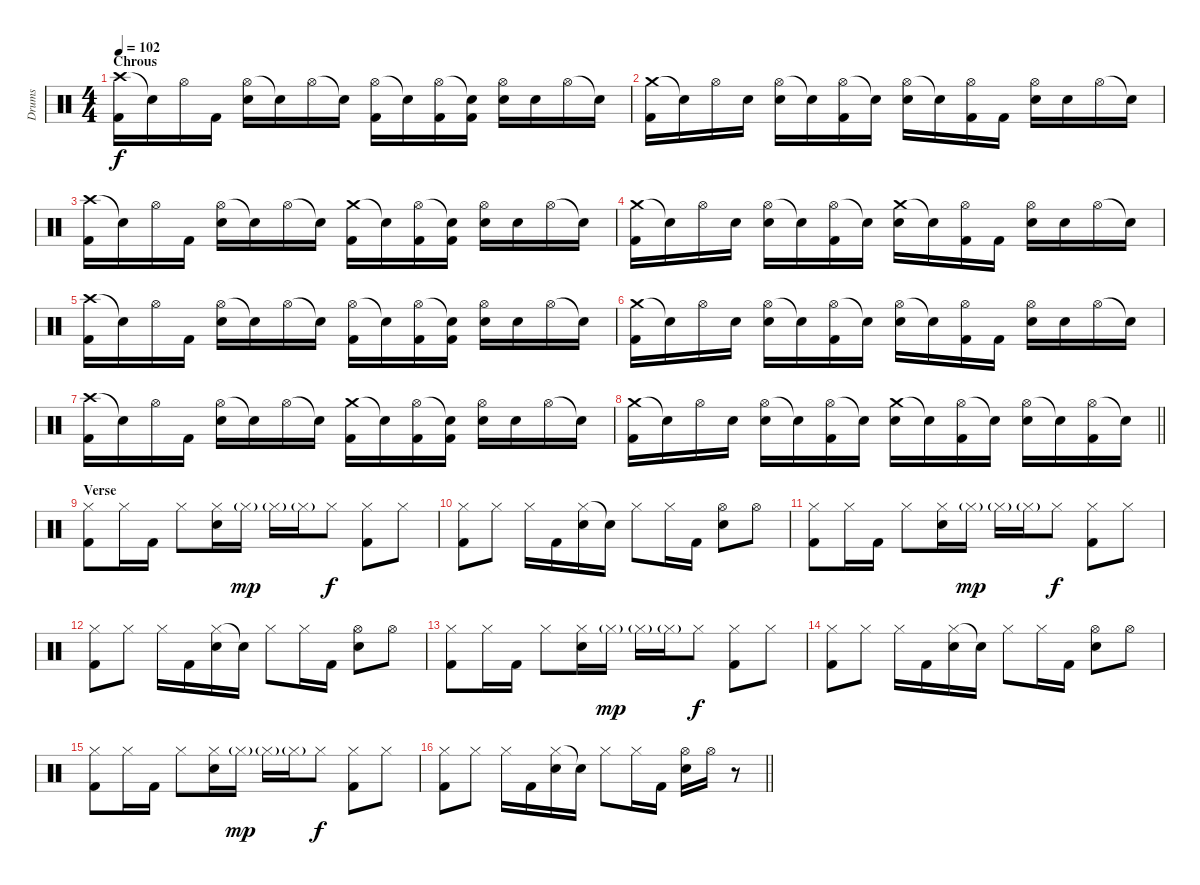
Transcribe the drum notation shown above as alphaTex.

\track ("Drums" "Drums") {instrument percussion}
\staff {score}
\articulation defaults
\ts (4 4)
\section ("" "Chrous")
\tempo 102
\clef neutral
\ks c
("Crash high (hit)" "Kick (hit) 2").16{dy f} "Snare (hit)"{t}.16 "Hi-Hat (open)".16 "Kick (hit) 2".16 ("Hi-Hat (open)" "Electric Snare (hit)").16 "Snare (hit)"{t}.16 "Hi-Hat (open)".16 "Snare (hit)"{t}.16 ("Hi-Hat (open)" "Kick (hit) 2").16 "Snare (hit)"{t}.16 ("Hi-Hat (open)" "Kick (hit) 2").16 ("Snare (hit)"{t} "Kick (hit) 2").16 ("Hi-Hat (open)" "Electric Snare (hit)").16 "Electric Snare (hit)".16 "Hi-Hat (open)".16 "Snare (hit)"{t}.16 |
("Crash medium (hit)" "Kick (hit) 2").16 "Snare (hit)"{t}.16 "Hi-Hat (open)".16 "Electric Snare (hit)".16 ("Hi-Hat (open)" "Electric Snare (hit)").16 "Snare (hit)"{t}.16 ("Hi-Hat (open)" "Kick (hit) 2").16 "Snare (hit)"{t}.16 ("Hi-Hat (open)" "Electric Snare (hit)").16 "Snare (hit)"{t}.16 ("Hi-Hat (open)" "Kick (hit) 2").16 "Kick (hit) 2".16 ("Hi-Hat (open)" "Electric Snare (hit)").16 "Electric Snare (hit)".16 "Hi-Hat (open)".16 "Snare (hit)"{t}.16 |
("Crash high (hit)" "Kick (hit) 2").16 "Snare (hit)"{t}.16 "Hi-Hat (open)".16 "Kick (hit) 2".16 ("Hi-Hat (open)" "Electric Snare (hit)").16 "Snare (hit)"{t}.16 "Hi-Hat (open)".16 "Snare (hit)"{t}.16 ("Crash medium (hit)" "Kick (hit) 2").16 "Snare (hit)"{t}.16 ("Hi-Hat (open)" "Kick (hit) 2").16 ("Snare (hit)"{t} "Kick (hit) 2").16 ("Hi-Hat (open)" "Electric Snare (hit)").16 "Electric Snare (hit)".16 "Hi-Hat (open)".16 "Snare (hit)"{t}.16 |
("Crash medium (hit)" "Kick (hit) 2").16 "Snare (hit)"{t}.16 "Hi-Hat (open)".16 "Electric Snare (hit)".16 ("Hi-Hat (open)" "Electric Snare (hit)").16 "Snare (hit)"{t}.16 ("Hi-Hat (open)" "Kick (hit) 2").16 "Snare (hit)"{t}.16 ("Crash medium (hit)" "Electric Snare (hit)").16 "Snare (hit)"{t}.16 ("Hi-Hat (open)" "Kick (hit) 2").16 "Kick (hit) 2".16 ("Hi-Hat (open)" "Electric Snare (hit)").16 "Electric Snare (hit)".16 "Hi-Hat (open)".16 "Snare (hit)"{t}.16 |
("Crash high (hit)" "Kick (hit) 2").16 "Snare (hit)"{t}.16 "Hi-Hat (open)".16 "Kick (hit) 2".16 ("Hi-Hat (open)" "Electric Snare (hit)").16 "Snare (hit)"{t}.16 "Hi-Hat (open)".16 "Snare (hit)"{t}.16 ("Hi-Hat (open)" "Kick (hit) 2").16 "Snare (hit)"{t}.16 ("Hi-Hat (open)" "Kick (hit) 2").16 ("Snare (hit)"{t} "Kick (hit) 2").16 ("Hi-Hat (open)" "Electric Snare (hit)").16 "Electric Snare (hit)".16 "Hi-Hat (open)".16 "Snare (hit)"{t}.16 |
("Crash medium (hit)" "Kick (hit) 2").16 "Snare (hit)"{t}.16 "Hi-Hat (open)".16 "Electric Snare (hit)".16 ("Hi-Hat (open)" "Electric Snare (hit)").16 "Snare (hit)"{t}.16 ("Hi-Hat (open)" "Kick (hit) 2").16 "Snare (hit)"{t}.16 ("Hi-Hat (open)" "Electric Snare (hit)").16 "Snare (hit)"{t}.16 ("Hi-Hat (open)" "Kick (hit) 2").16 "Kick (hit) 2".16 ("Hi-Hat (open)" "Electric Snare (hit)").16 "Electric Snare (hit)".16 "Hi-Hat (open)".16 "Snare (hit)"{t}.16 |
("Crash high (hit)" "Kick (hit) 2").16 "Snare (hit)"{t}.16 "Hi-Hat (open)".16 "Kick (hit) 2".16 ("Hi-Hat (open)" "Electric Snare (hit)").16 "Snare (hit)"{t}.16 "Hi-Hat (open)".16 "Snare (hit)"{t}.16 ("Crash medium (hit)" "Kick (hit) 2").16 "Snare (hit)"{t}.16 ("Hi-Hat (open)" "Kick (hit) 2").16 ("Snare (hit)"{t} "Kick (hit) 2").16 ("Hi-Hat (open)" "Electric Snare (hit)").16 "Electric Snare (hit)".16 "Hi-Hat (open)".16 "Snare (hit)"{t}.16 |
\barLineRight lightlight
("Crash medium (hit)" "Kick (hit) 2").16 "Snare (hit)"{t}.16 "Hi-Hat (open)".16 "Electric Snare (hit)".16 ("Hi-Hat (open)" "Electric Snare (hit)").16 "Snare (hit)"{t}.16 ("Hi-Hat (open)" "Kick (hit) 2").16 "Snare (hit)"{t}.16 ("Crash medium (hit)" "Electric Snare (hit)").16 "Snare (hit)"{t}.16 ("Hi-Hat (open)" "Kick (hit) 2").16 "Snare (hit)"{t}.16 ("Hi-Hat (open)" "Electric Snare (hit)").16 "Snare (hit)"{t}.16 ("Hi-Hat (open)" "Kick (hit) 2").16 "Snare (hit)"{t}.16 |
\section ("" "Verse")
("Hi-Hat (closed)" "Kick (hit) 2").8 "Hi-Hat (closed)".16 "Kick (hit) 2".16 "Hi-Hat (closed)".8 ("Hi-Hat (closed)" "Electric Snare (hit)").16 "Hi-Hat (closed)"{g}.16{dy mp} "Hi-Hat (closed)"{g}.16 "Hi-Hat (closed)"{g}.16 "Hi-Hat (closed)".8{dy f} ("Hi-Hat (closed)" "Kick (hit) 2").8 "Hi-Hat (closed)".8 |
("Hi-Hat (closed)" "Kick (hit) 2").8 "Hi-Hat (closed)".8 "Hi-Hat (closed)".16 "Kick (hit) 2".16 ("Hi-Hat (closed)" "Electric Snare (hit)").16 "Snare (hit)"{t}.16 "Hi-Hat (closed)".8 "Hi-Hat (closed)".16 "Kick (hit) 2".16 ("Hi-Hat (open)" "Electric Snare (hit)").8 "Hi-Hat (open)".8 |
("Hi-Hat (closed)" "Kick (hit) 2").8 "Hi-Hat (closed)".16 "Kick (hit) 2".16 "Hi-Hat (closed)".8 ("Hi-Hat (closed)" "Electric Snare (hit)").16 "Hi-Hat (closed)"{g}.16{dy mp} "Hi-Hat (closed)"{g}.16 "Hi-Hat (closed)"{g}.16 "Hi-Hat (closed)".8{dy f} ("Hi-Hat (closed)" "Kick (hit) 2").8 "Hi-Hat (closed)".8 |
("Hi-Hat (closed)" "Kick (hit) 2").8 "Hi-Hat (closed)".8 "Hi-Hat (closed)".16 "Kick (hit) 2".16 ("Hi-Hat (closed)" "Electric Snare (hit)").16 "Snare (hit)"{t}.16 "Hi-Hat (closed)".8 "Hi-Hat (closed)".16 "Kick (hit) 2".16 ("Hi-Hat (open)" "Electric Snare (hit)").8 "Hi-Hat (open)".8 |
("Hi-Hat (closed)" "Kick (hit) 2").8 "Hi-Hat (closed)".16 "Kick (hit) 2".16 "Hi-Hat (closed)".8 ("Hi-Hat (closed)" "Electric Snare (hit)").16 "Hi-Hat (closed)"{g}.16{dy mp} "Hi-Hat (closed)"{g}.16 "Hi-Hat (closed)"{g}.16 "Hi-Hat (closed)".8{dy f} ("Hi-Hat (closed)" "Kick (hit) 2").8 "Hi-Hat (closed)".8 |
("Hi-Hat (closed)" "Kick (hit) 2").8 "Hi-Hat (closed)".8 "Hi-Hat (closed)".16 "Kick (hit) 2".16 ("Hi-Hat (closed)" "Electric Snare (hit)").16 "Snare (hit)"{t}.16 "Hi-Hat (closed)".8 "Hi-Hat (closed)".16 "Kick (hit) 2".16 ("Hi-Hat (open)" "Electric Snare (hit)").8 "Hi-Hat (open)".8 |
("Hi-Hat (closed)" "Kick (hit) 2").8 "Hi-Hat (closed)".16 "Kick (hit) 2".16 "Hi-Hat (closed)".8 ("Hi-Hat (closed)" "Electric Snare (hit)").16 "Hi-Hat (closed)"{g}.16{dy mp} "Hi-Hat (closed)"{g}.16 "Hi-Hat (closed)"{g}.16 "Hi-Hat (closed)".8{dy f} ("Hi-Hat (closed)" "Kick (hit) 2").8 "Hi-Hat (closed)".8 |
\barLineRight lightlight
("Hi-Hat (closed)" "Kick (hit) 2").8 "Hi-Hat (closed)".8 "Hi-Hat (closed)".16 "Kick (hit) 2".16 ("Hi-Hat (closed)" "Electric Snare (hit)").16 "Snare (hit)"{t}.16 "Hi-Hat (closed)".8 "Hi-Hat (closed)".16 "Kick (hit) 2".16 ("Hi-Hat (open)" "Electric Snare (hit)").16 "Hi-Hat (open)".16 r.8
